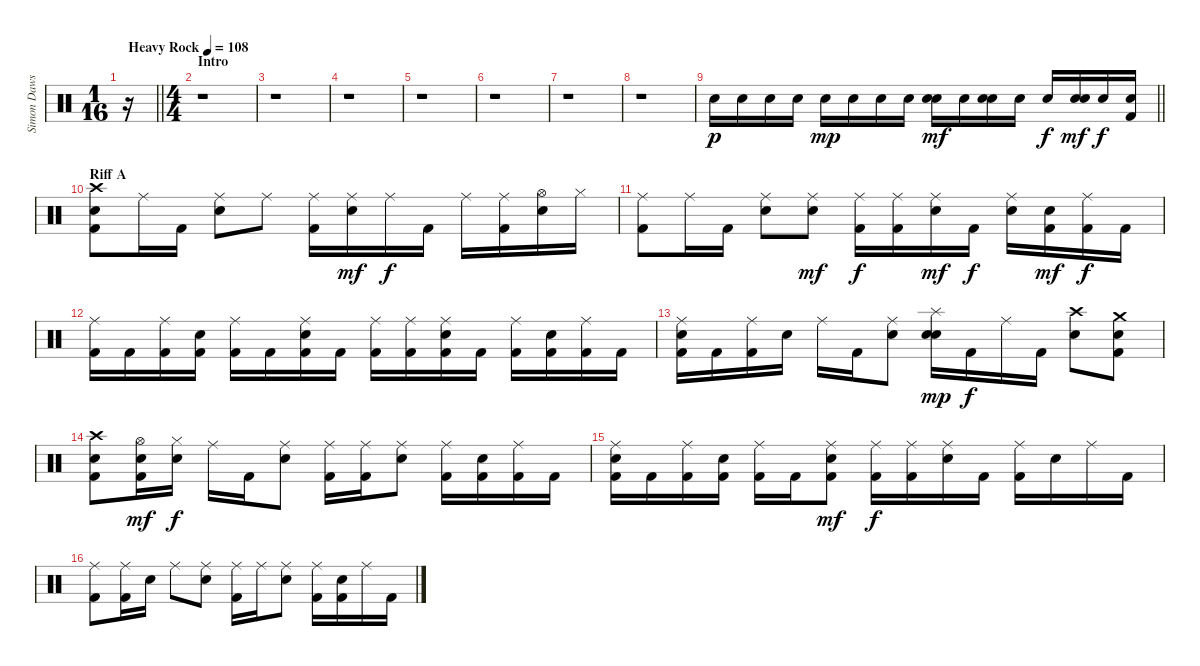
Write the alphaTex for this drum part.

\track ("Simon Dawson" "Simon Daws") {instrument percussion}
\staff {score}
\articulation defaults
\ts (1 16)
\tempo (108 "Heavy Rock")
\clef neutral
\barLineRight lightlight
\ks c
r.16{dy p} |
\ts (4 4)
\section ("" "Intro")
r.1 |
r.1 |
r.1 |
r.1 |
r.1 |
r.1 |
r.1 |
\barLineRight lightlight "Snare (hit) 2".16 "Snare (hit) 2".16 "Snare (hit) 2".16 "Snare (hit) 2".16 "Snare (hit) 2".16{dy mp} "Snare (hit) 2".16 "Snare (hit) 2".16 "Snare (hit) 2".16
("Snare (hit) 2" "Electric Snare (hit)").16{dy mf} "Snare (hit) 2".16 ("Snare (hit) 2" "Electric Snare (hit)").16 "Snare (hit) 2".16 "Snare (hit) 2".16{dy f} ("Snare (hit) 2" "Electric Snare (hit)").16{dy mf} "Snare (hit) 2".16{dy f} ("Snare (hit) 2" "Kick (hit) 2").16 |
\section ("" "Riff A")
("Snare (hit) 2" "Crash high (hit)" "Kick (hit) 2").8 "Ride (middle)".16 "Kick (hit) 2".16 ("Ride (middle)" "Snare (hit) 2").8 "Ride (middle)".8 ("Ride (middle)" "Kick (hit) 2").16 ("Ride (middle)" "Snare (hit) 2").16{dy mf} "Ride (middle)".16{dy f} "Kick (hit) 2".16 "Ride (middle)".16 ("Ride (middle)" "Kick (hit) 2").16 ("Hi-Hat (open)" "Snare (hit) 2").16 "Hi-Hat (closed)".16 |
("Ride (middle)" "Kick (hit) 2").8 "Ride (middle)".16 "Kick (hit) 2".16 ("Ride (middle)" "Snare (hit) 2").8 ("Ride (middle)" "Snare (hit) 2").8{dy mf} ("Ride (middle)" "Kick (hit) 2").16{dy f} ("Ride (middle)" "Kick (hit) 2").16 ("Ride (middle)" "Snare (hit) 2").16{dy mf} "Kick (hit) 2".16{dy f} ("Ride (middle)" "Snare (hit) 2").16 ("Snare (hit) 2" "Kick (hit) 2").16{dy mf} ("Ride (middle)" "Kick (hit) 2").16{dy f} "Kick (hit) 2".16 |
("Ride (middle)" "Kick (hit) 2").16 "Kick (hit) 2".16 ("Ride (middle)" "Kick (hit) 2").16 ("Snare (hit) 2" "Kick (hit) 2").16 ("Ride (middle)" "Kick (hit) 2").16 "Kick (hit) 2".16 ("Ride (middle)" "Snare (hit) 2" "Kick (hit) 2").16 "Kick (hit) 2".16 ("Ride (middle)" "Kick (hit) 2").16 ("Ride (middle)" "Kick (hit) 2").16 ("Ride (middle)" "Snare (hit) 2" "Kick (hit) 2").16 "Kick (hit) 2".16 ("Ride (middle)" "Kick (hit) 2").16 ("Snare (hit) 2" "Kick (hit) 2").16 ("Ride (middle)" "Kick (hit) 2").16 "Kick (hit) 2".16 |
("Ride (middle)" "Snare (hit) 2" "Kick (hit) 2").16 "Kick (hit) 2".16 ("Ride (middle)" "Kick (hit) 2").16 "Snare (hit) 2".16 "Ride (middle)".16 "Kick (hit) 2".16 ("Ride (middle)" "Snare (hit) 2").8 ("Snare (hit) 2" "Electric Snare (hit)" "Splash (hit)").16{dy mp} "Kick (hit) 2".16{dy f} "Ride (middle)".16 "Kick (hit) 2".16 ("Snare (hit) 2" "Crash high (hit)").8 ("Snare (hit) 2" "Crash medium (hit)" "Kick (hit) 2").8 |
("Snare (hit) 2" "Crash high (hit)" "Kick (hit) 2").8 ("Hi-Hat (open)" "Snare (hit) 2" "Kick (hit) 2").16{dy mf} ("Hi-Hat (closed)" "Snare (hit) 2").16{dy f} "Ride (middle)".16 "Kick (hit) 2".16 ("Ride (middle)" "Snare (hit) 2").8 ("Ride (middle)" "Kick (hit) 2").16 ("Ride (middle)" "Kick (hit) 2").16 ("Ride (middle)" "Snare (hit) 2").8 ("Ride (middle)" "Kick (hit) 2").16 ("Snare (hit) 2" "Kick (hit) 2").16 ("Ride (middle)" "Kick (hit) 2").16 "Kick (hit) 2".16 |
("Ride (middle)" "Snare (hit) 2" "Kick (hit) 2").16 "Kick (hit) 2".16 ("Ride (middle)" "Kick (hit) 2").16 ("Snare (hit) 2" "Kick (hit) 2").16 ("Ride (middle)" "Kick (hit) 2").16 "Kick (hit) 2".16 ("Ride (middle)" "Snare (hit) 2" "Kick (hit) 2").8{dy mf} ("Ride (middle)" "Kick (hit) 2").16{dy f} ("Ride (middle)" "Kick (hit) 2").16 ("Ride (middle)" "Snare (hit) 2").16 "Kick (hit) 2".16 ("Ride (middle)" "Kick (hit) 2").16 "Snare (hit) 2".16 "Ride (middle)".16 "Kick (hit) 2".16 |
("Ride (middle)" "Kick (hit) 2").8 ("Ride (middle)" "Kick (hit) 2").16 "Snare (hit) 2".16 "Ride (middle)".8 ("Ride (middle)" "Snare (hit) 2").8 ("Ride (middle)" "Kick (hit) 2").16 "Ride (middle)".16 ("Ride (middle)" "Snare (hit) 2").8 ("Ride (middle)" "Kick (hit) 2").16 ("Snare (hit) 2" "Kick (hit) 2").16 "Ride (middle)".16 "Kick (hit) 2".16
